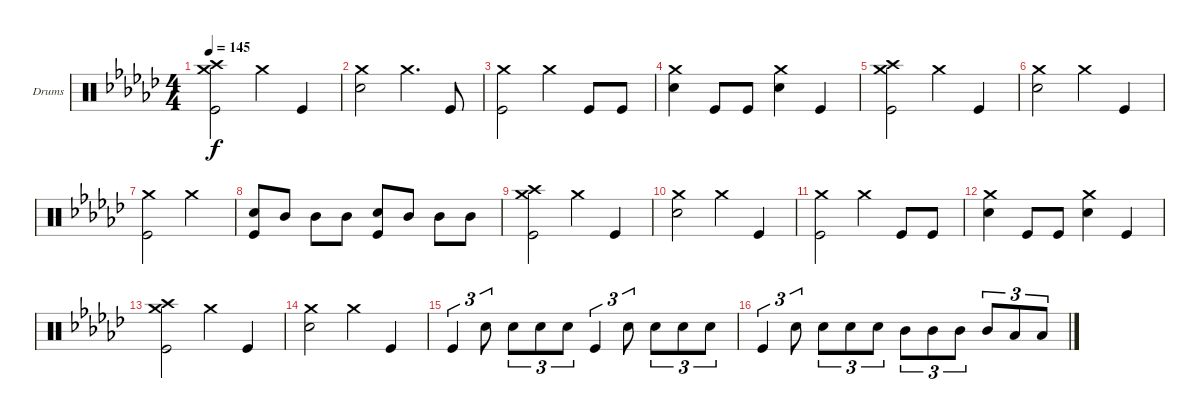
\defaultSystemsLayout 4
\bracketExtendMode groupsimilarinstruments
\firstSystemTrackNameOrientation horizontal
\otherSystemsTrackNameOrientation horizontal
\track ("Drumkit" "Drums") {instrument percussion}
\staff {score}
\articulation defaults
\ts (4 4)
\tempo 145
\clef neutral
\ks ebminor
("Crash high (hit)" "Crash medium (hit)" "Kick (hit)").2{dy f} "Crash medium (hit)".4 "Kick (hit)".4 |
("Crash medium (hit)" "Snare (hit) 2").2 "Crash medium (hit)".4{d} "Kick (hit)".8 |
("Kick (hit)" "Crash medium (hit)").2 "Crash medium (hit)".4 "Kick (hit)".8 "Kick (hit)".8 |
("Snare (hit) 2" "Crash medium (hit)").4 "Kick (hit)".8 "Kick (hit)".8 ("Snare (hit) 2" "Crash medium (hit)").4 "Kick (hit)".4 |
("Crash high (hit)" "Crash medium (hit)" "Kick (hit)").2 "Crash medium (hit)".4 "Kick (hit)".4 |
("Crash medium (hit)" "Snare (hit) 2").2 "Crash medium (hit)".4 "Kick (hit)".4 |
("Kick (hit)" "Crash medium (hit)").2 "Crash medium (hit)".2 |
("Kick (hit)" "Snare (hit) 2").8 "Mid Tom (hit)".8 "Mid Tom (hit)".8 "Mid Tom (hit)".8 ("Snare (hit) 2" "Kick (hit)").8 "Mid Tom (hit)".8 "Mid Tom (hit)".8 "Mid Tom (hit)".8 |
("Crash high (hit)" "Crash medium (hit)" "Kick (hit)").2 "Crash medium (hit)".4 "Kick (hit)".4 |
("Crash medium (hit)" "Snare (hit) 2").2 "Crash medium (hit)".4 "Kick (hit)".4 |
("Kick (hit)" "Crash medium (hit)").2 "Crash medium (hit)".4 "Kick (hit)".8 "Kick (hit)".8 |
("Snare (hit) 2" "Crash medium (hit)").4 "Kick (hit)".8 "Kick (hit)".8 ("Snare (hit) 2" "Crash medium (hit)").4 "Kick (hit)".4 |
("Crash high (hit)" "Crash medium (hit)" "Kick (hit)").2 "Crash medium (hit)".4 "Kick (hit)".4 |
("Crash medium (hit)" "Snare (hit) 2").2 "Crash medium (hit)".4 "Kick (hit)".4 |
"Kick (hit)".4{tu (3 2)} "Snare (hit) 2".8{tu (3 2)} "Snare (hit) 2".8{tu (3 2)} "Snare (hit) 2".8{tu (3 2)} "Snare (hit) 2".8{tu (3 2)} "Kick (hit)".4{tu (3 2)} "Snare (hit) 2".8{tu (3 2)} "Snare (hit) 2".8{tu (3 2)} "Snare (hit) 2".8{tu (3 2)} "Snare (hit) 2".8{tu (3 2)} |
"Kick (hit)".4{tu (3 2)} "Snare (hit) 2".8{tu (3 2)} "Snare (hit) 2".8{tu (3 2)} "Snare (hit) 2".8{tu (3 2)} "Snare (hit) 2".8{tu (3 2)} "Mid Tom (hit)".8{tu (3 2)} "Mid Tom (hit)".8{tu (3 2)} "Mid Tom (hit)".8{tu (3 2)} "Mid Tom (hit)".8{tu (3 2)} "Low Tom (hit)".8{tu (3 2)} "Low Tom (hit)".8{tu (3 2)}
